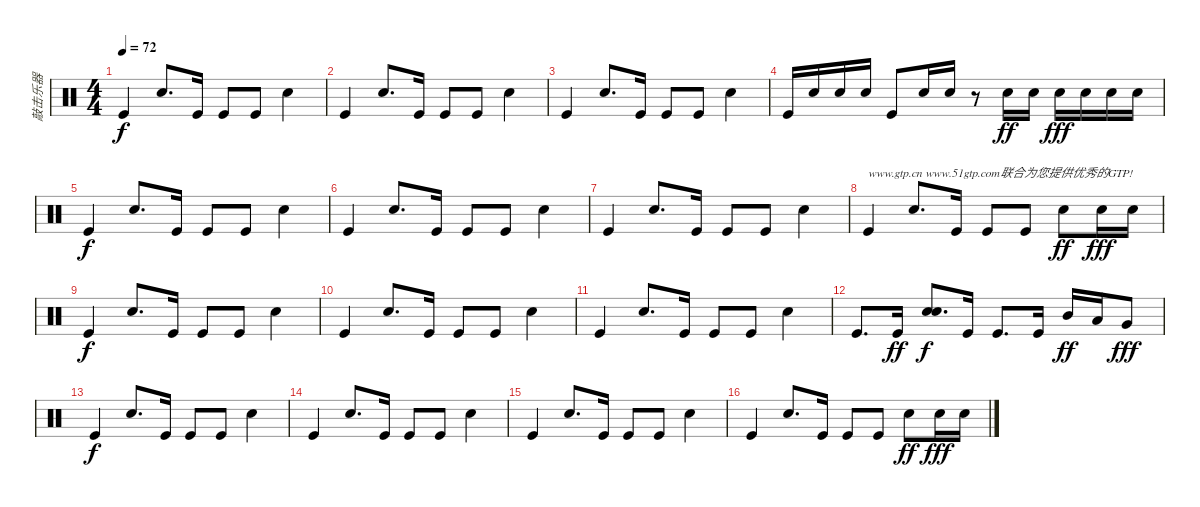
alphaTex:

\track ("敲击乐器" "敲击乐器") {instrument percussion}
\staff {score}
\articulation defaults
\ts (4 4)
\tempo 72
\clef neutral
\ks c "Kick (hit)".4{dy f} "Snare (hit) 2".8{d} "Kick (hit)".16 "Kick (hit)".8 "Kick (hit)".8 "Snare (hit) 2".4
|
"Kick (hit)".4 "Snare (hit) 2".8{d} "Kick (hit)".16 "Kick (hit)".8 "Kick (hit)".8 "Snare (hit) 2".4 |
"Kick (hit)".4 "Snare (hit) 2".8{d} "Kick (hit)".16 "Kick (hit)".8 "Kick (hit)".8 "Snare (hit) 2".4 |
"Kick (hit)".16 "Snare (hit) 2".16 "Snare (hit) 2".16 "Snare (hit) 2".16 "Kick (hit)".8 "Snare (hit) 2".16 "Snare (hit) 2".16 r.8 "Snare (hit) 2".16{dy ff} "Snare (hit) 2".16 "Snare (hit) 2".16{dy fff} "Snare (hit) 2".16 "Snare (hit) 2".16 "Snare (hit) 2".16 |
"Kick (hit)".4{dy f} "Snare (hit) 2".8{d} "Kick (hit)".16 "Kick (hit)".8 "Kick (hit)".8 "Snare (hit) 2".4 |
"Kick (hit)".4 "Snare (hit) 2".8{d} "Kick (hit)".16 "Kick (hit)".8 "Kick (hit)".8 "Snare (hit) 2".4 |
"Kick (hit)".4 "Snare (hit) 2".8{d} "Kick (hit)".16 "Kick (hit)".8 "Kick (hit)".8 "Snare (hit) 2".4 |
"Kick (hit)".4{txt "www.gtp.cn www.51gtp.com联合为您提供优秀的GTP!"} "Snare (hit) 2".8{d} "Kick (hit)".16 "Kick (hit)".8 "Kick (hit)".8 "Snare (hit) 2".8{dy ff} "Snare (hit) 2".16{dy fff} "Snare (hit) 2".16 |
"Kick (hit)".4{dy f} "Snare (hit) 2".8{d} "Kick (hit)".16 "Kick (hit)".8 "Kick (hit)".8 "Snare (hit) 2".4 |
"Kick (hit)".4 "Snare (hit) 2".8{d} "Kick (hit)".16 "Kick (hit)".8 "Kick (hit)".8 "Snare (hit) 2".4 |
"Kick (hit)".4 "Snare (hit) 2".8{d} "Kick (hit)".16 "Kick (hit)".8 "Kick (hit)".8 "Snare (hit) 2".4 |
"Kick (hit)".8{d} "Kick (hit)".16{dy ff} ("Snare (hit) 2" "Electric Snare (hit)").8{d dy f} "Kick (hit)".16 "Kick (hit)".8{d} "Kick (hit)".16 "Mid Tom (hit)".16{dy ff} "Low Tom (hit)".16 "Very Low Tom (hit)".8{dy fff} |
"Kick (hit)".4{dy f} "Snare (hit) 2".8{d} "Kick (hit)".16 "Kick (hit)".8 "Kick (hit)".8 "Snare (hit) 2".4 |
"Kick (hit)".4 "Snare (hit) 2".8{d} "Kick (hit)".16 "Kick (hit)".8 "Kick (hit)".8 "Snare (hit) 2".4 |
"Kick (hit)".4 "Snare (hit) 2".8{d} "Kick (hit)".16 "Kick (hit)".8 "Kick (hit)".8 "Snare (hit) 2".4 |
"Kick (hit)".4 "Snare (hit) 2".8{d} "Kick (hit)".16 "Kick (hit)".8 "Kick (hit)".8 "Snare (hit) 2".8{dy ff} "Snare (hit) 2".16{dy fff} "Snare (hit) 2".16
